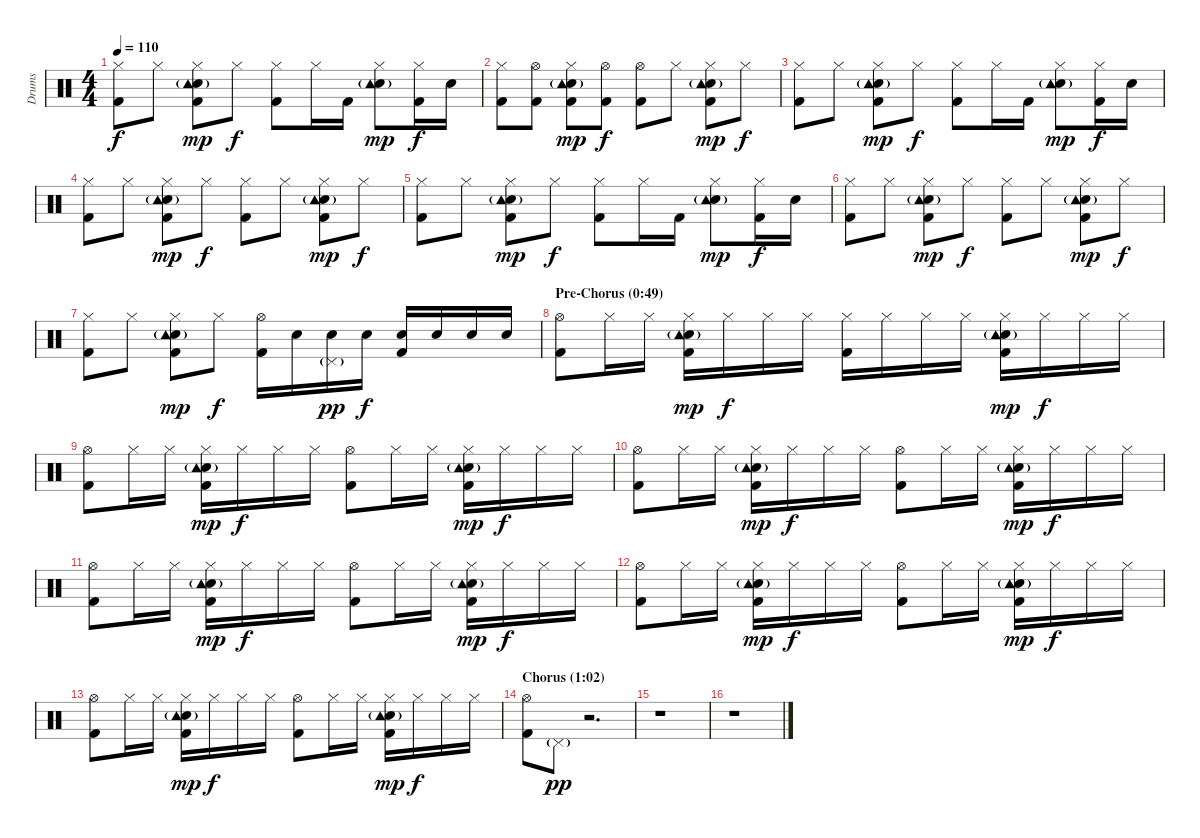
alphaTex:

\track ("Drums" "Drums") {instrument percussion}
\staff {score}
\articulation defaults
\ts (4 4)
\tempo 110
\clef neutral
\ks c
("Hi-Hat (closed)" "Kick (hit) 2").8{dy f} "Hi-Hat (closed)".8 ("Hi-Hat (closed)" "Snare (hit) 2" "Tambourine (hit)"{g} "Kick (hit) 2").8{dy mp} "Hi-Hat (closed)".8{dy f} ("Hi-Hat (closed)" "Kick (hit) 2").8 "Hi-Hat (closed)".16 "Kick (hit) 2".16 ("Hi-Hat (closed)" "Snare (hit) 2" "Tambourine (hit)"{g}).8{dy mp} ("Hi-Hat (closed)" "Kick (hit) 2").16{dy f} "Snare (hit) 2".16 |
("Hi-Hat (closed)" "Kick (hit) 2").8 ("Hi-Hat (open)" "Kick (hit) 2").8 ("Hi-Hat (closed)" "Snare (hit) 2" "Tambourine (hit)"{g} "Kick (hit) 2").8{dy mp} ("Hi-Hat (open)" "Kick (hit) 2").8{dy f} ("Hi-Hat (open)" "Kick (hit) 2").8 "Hi-Hat (closed)".8 ("Hi-Hat (closed)" "Snare (hit) 2" "Tambourine (hit)"{g} "Kick (hit) 2").8{dy mp} "Hi-Hat (closed)".8{dy f} |
("Hi-Hat (closed)" "Kick (hit) 2").8 "Hi-Hat (closed)".8 ("Hi-Hat (closed)" "Snare (hit) 2" "Tambourine (hit)"{g} "Kick (hit) 2").8{dy mp} "Hi-Hat (closed)".8{dy f} ("Hi-Hat (closed)" "Kick (hit) 2").8 "Hi-Hat (closed)".16 "Kick (hit) 2".16 ("Hi-Hat (closed)" "Snare (hit) 2" "Tambourine (hit)"{g}).8{dy mp} ("Hi-Hat (closed)" "Kick (hit) 2").16{dy f} "Snare (hit) 2".16 |
("Hi-Hat (closed)" "Kick (hit) 2").8 "Hi-Hat (closed)".8 ("Hi-Hat (closed)" "Snare (hit) 2" "Tambourine (hit)"{g} "Kick (hit) 2").8{dy mp} "Hi-Hat (closed)".8{dy f} ("Hi-Hat (closed)" "Kick (hit) 2").8 "Hi-Hat (closed)".8 ("Hi-Hat (closed)" "Snare (hit) 2" "Tambourine (hit)"{g} "Kick (hit) 2").8{dy mp} "Hi-Hat (closed)".8{dy f} |
("Hi-Hat (closed)" "Kick (hit) 2").8 "Hi-Hat (closed)".8 ("Hi-Hat (closed)" "Snare (hit) 2" "Tambourine (hit)"{g} "Kick (hit) 2").8{dy mp} "Hi-Hat (closed)".8{dy f} ("Hi-Hat (closed)" "Kick (hit) 2").8 "Hi-Hat (closed)".16 "Kick (hit) 2".16 ("Hi-Hat (closed)" "Snare (hit) 2" "Tambourine (hit)"{g}).8{dy mp} ("Hi-Hat (closed)" "Kick (hit) 2").16{dy f} "Snare (hit) 2".16 |
("Hi-Hat (closed)" "Kick (hit) 2").8 "Hi-Hat (closed)".8 ("Hi-Hat (closed)" "Snare (hit) 2" "Tambourine (hit)"{g} "Kick (hit) 2").8{dy mp} "Hi-Hat (closed)".8{dy f} ("Hi-Hat (closed)" "Kick (hit) 2").8 "Hi-Hat (closed)".8 ("Hi-Hat (closed)" "Snare (hit) 2" "Tambourine (hit)"{g} "Kick (hit) 2").8{dy mp} "Hi-Hat (closed)".8{dy f} |
("Hi-Hat (closed)" "Kick (hit) 2").8 "Hi-Hat (closed)".8 ("Hi-Hat (closed)" "Snare (hit) 2" "Tambourine (hit)"{g} "Kick (hit) 2").8{dy mp} "Hi-Hat (closed)".8{dy f} ("Hi-Hat (open)" "Kick (hit) 2").16 "Snare (hit) 2".16 ("Pedal Hi-Hat (hit)"{g} "Snare (hit) 2").16{dy pp} "Snare (hit) 2".16{dy f} ("Snare (hit) 2" "Kick (hit) 2").16 "Snare (hit) 2".16 "Snare (hit) 2".16 "Snare (hit) 2".16 |
\section ("" "Pre-Chorus (0:49)")
("Hi-Hat (open)" "Kick (hit) 2").8 "Hi-Hat (closed)".16 "Hi-Hat (closed)".16 ("Hi-Hat (closed)" "Snare (hit) 2" "Tambourine (hit)"{g} "Kick (hit) 2").16{dy mp} "Hi-Hat (closed)".16{dy f} "Hi-Hat (closed)".16 "Hi-Hat (closed)".16 ("Hi-Hat (closed)" "Kick (hit) 2").16 "Hi-Hat (closed)".16 "Hi-Hat (closed)".16 "Hi-Hat (closed)".16 ("Hi-Hat (closed)" "Snare (hit) 2" "Tambourine (hit)"{g} "Kick (hit) 2").16{dy mp} "Hi-Hat (closed)".16{dy f} "Hi-Hat (closed)".16 "Hi-Hat (closed)".16 |
("Hi-Hat (open)" "Kick (hit) 2").8 "Hi-Hat (closed)".16 "Hi-Hat (closed)".16 ("Hi-Hat (closed)" "Snare (hit) 2" "Tambourine (hit)"{g} "Kick (hit) 2").16{dy mp} "Hi-Hat (closed)".16{dy f} "Hi-Hat (closed)".16 "Hi-Hat (closed)".16 ("Hi-Hat (open)" "Kick (hit) 2").8 "Hi-Hat (closed)".16 "Hi-Hat (closed)".16 ("Hi-Hat (closed)" "Snare (hit) 2" "Tambourine (hit)"{g} "Kick (hit) 2").16{dy mp} "Hi-Hat (closed)".16{dy f} "Hi-Hat (closed)".16 "Hi-Hat (closed)".16 |
("Hi-Hat (open)" "Kick (hit) 2").8 "Hi-Hat (closed)".16 "Hi-Hat (closed)".16 ("Hi-Hat (closed)" "Snare (hit) 2" "Tambourine (hit)"{g} "Kick (hit) 2").16{dy mp} "Hi-Hat (closed)".16{dy f} "Hi-Hat (closed)".16 "Hi-Hat (closed)".16 ("Hi-Hat (open)" "Kick (hit) 2").8 "Hi-Hat (closed)".16 "Hi-Hat (closed)".16 ("Hi-Hat (closed)" "Snare (hit) 2" "Tambourine (hit)"{g} "Kick (hit) 2").16{dy mp} "Hi-Hat (closed)".16{dy f} "Hi-Hat (closed)".16 "Hi-Hat (closed)".16 |
("Hi-Hat (open)" "Kick (hit) 2").8 "Hi-Hat (closed)".16 "Hi-Hat (closed)".16 ("Hi-Hat (closed)" "Snare (hit) 2" "Tambourine (hit)"{g} "Kick (hit) 2").16{dy mp} "Hi-Hat (closed)".16{dy f} "Hi-Hat (closed)".16 "Hi-Hat (closed)".16 ("Hi-Hat (open)" "Kick (hit) 2").8 "Hi-Hat (closed)".16 "Hi-Hat (closed)".16 ("Hi-Hat (closed)" "Snare (hit) 2" "Tambourine (hit)"{g} "Kick (hit) 2").16{dy mp} "Hi-Hat (closed)".16{dy f} "Hi-Hat (closed)".16 "Hi-Hat (closed)".16 |
("Hi-Hat (open)" "Kick (hit) 2").8 "Hi-Hat (closed)".16 "Hi-Hat (closed)".16 ("Hi-Hat (closed)" "Snare (hit) 2" "Tambourine (hit)"{g} "Kick (hit) 2").16{dy mp} "Hi-Hat (closed)".16{dy f} "Hi-Hat (closed)".16 "Hi-Hat (closed)".16 ("Hi-Hat (open)" "Kick (hit) 2").8 "Hi-Hat (closed)".16 "Hi-Hat (closed)".16 ("Hi-Hat (closed)" "Snare (hit) 2" "Tambourine (hit)"{g} "Kick (hit) 2").16{dy mp} "Hi-Hat (closed)".16{dy f} "Hi-Hat (closed)".16 "Hi-Hat (closed)".16 |
("Hi-Hat (open)" "Kick (hit) 2").8 "Hi-Hat (closed)".16 "Hi-Hat (closed)".16 ("Hi-Hat (closed)" "Snare (hit) 2" "Tambourine (hit)"{g} "Kick (hit) 2").16{dy mp} "Hi-Hat (closed)".16{dy f} "Hi-Hat (closed)".16 "Hi-Hat (closed)".16 ("Hi-Hat (open)" "Kick (hit) 2").8 "Hi-Hat (closed)".16 "Hi-Hat (closed)".16 ("Hi-Hat (closed)" "Snare (hit) 2" "Tambourine (hit)"{g} "Kick (hit) 2").16{dy mp} "Hi-Hat (closed)".16{dy f} "Hi-Hat (closed)".16 "Hi-Hat (closed)".16 |
\section ("" "Chorus (1:02)")
("Hi-Hat (open)" "Kick (hit) 2").8 "Pedal Hi-Hat (hit)"{g}.8{dy pp} r.2{d} |
r.1 |
r.1
